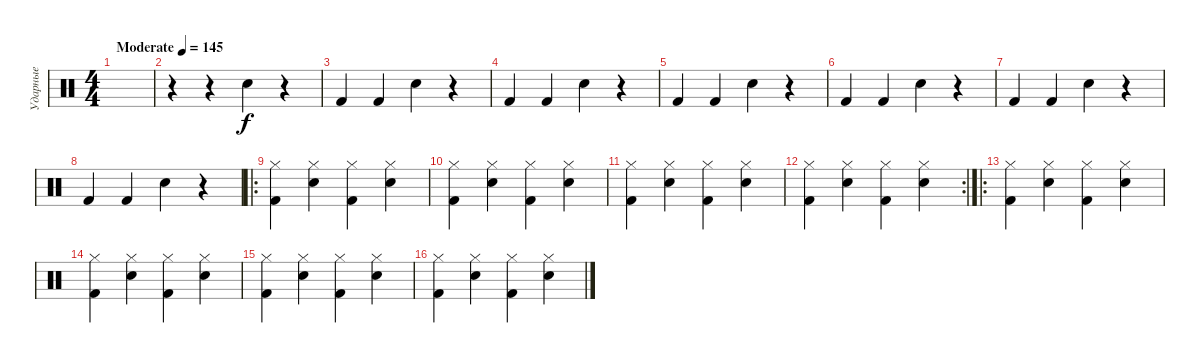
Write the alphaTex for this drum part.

\track ("Ударные" "Ударные") {solo instrument percussion}
\staff {score}
\articulation defaults
\ts (4 4)
\tempo (145 "Moderate")
\clef neutral
\ks c
|
r.4 r.4 "Snare (hit) 2".4 r.4 |
"Kick (hit) 2".4 "Kick (hit) 2".4 "Snare (hit) 2".4 r.4 |
"Kick (hit) 2".4 "Kick (hit) 2".4 "Snare (hit) 2".4 r.4 |
"Kick (hit) 2".4 "Kick (hit) 2".4 "Snare (hit) 2".4 r.4 |
"Kick (hit) 2".4 "Kick (hit) 2".4 "Snare (hit) 2".4 r.4 |
"Kick (hit) 2".4 "Kick (hit) 2".4 "Snare (hit) 2".4 r.4 |
"Kick (hit) 2".4 "Kick (hit) 2".4 "Snare (hit) 2".4 r.4 |
\ro
("Hi-Hat (closed)" "Kick (hit) 2").4 ("Hi-Hat (closed)" "Snare (hit) 2").4 ("Hi-Hat (closed)" "Kick (hit) 2").4 ("Hi-Hat (closed)" "Snare (hit) 2").4 |
("Hi-Hat (closed)" "Kick (hit) 2").4 ("Hi-Hat (closed)" "Snare (hit) 2").4 ("Hi-Hat (closed)" "Kick (hit) 2").4 ("Hi-Hat (closed)" "Snare (hit) 2").4 |
("Hi-Hat (closed)" "Kick (hit) 2").4 ("Hi-Hat (closed)" "Snare (hit) 2").4 ("Hi-Hat (closed)" "Kick (hit) 2").4 ("Hi-Hat (closed)" "Snare (hit) 2").4 |
\rc 2
("Hi-Hat (closed)" "Kick (hit) 2").4 ("Hi-Hat (closed)" "Snare (hit) 2").4 ("Hi-Hat (closed)" "Kick (hit) 2").4 ("Hi-Hat (closed)" "Snare (hit) 2").4 |
\ro
("Hi-Hat (closed)" "Kick (hit) 2").4 ("Hi-Hat (closed)" "Snare (hit) 2").4 ("Hi-Hat (closed)" "Kick (hit) 2").4 ("Hi-Hat (closed)" "Snare (hit) 2").4 |
("Hi-Hat (closed)" "Kick (hit) 2").4 ("Hi-Hat (closed)" "Snare (hit) 2").4 ("Hi-Hat (closed)" "Kick (hit) 2").4 ("Hi-Hat (closed)" "Snare (hit) 2").4 |
("Hi-Hat (closed)" "Kick (hit) 2").4 ("Hi-Hat (closed)" "Snare (hit) 2").4 ("Hi-Hat (closed)" "Kick (hit) 2").4 ("Hi-Hat (closed)" "Snare (hit) 2").4 |
("Hi-Hat (closed)" "Kick (hit) 2").4 ("Hi-Hat (closed)" "Snare (hit) 2").4 ("Hi-Hat (closed)" "Kick (hit) 2").4 ("Hi-Hat (closed)" "Snare (hit) 2").4
